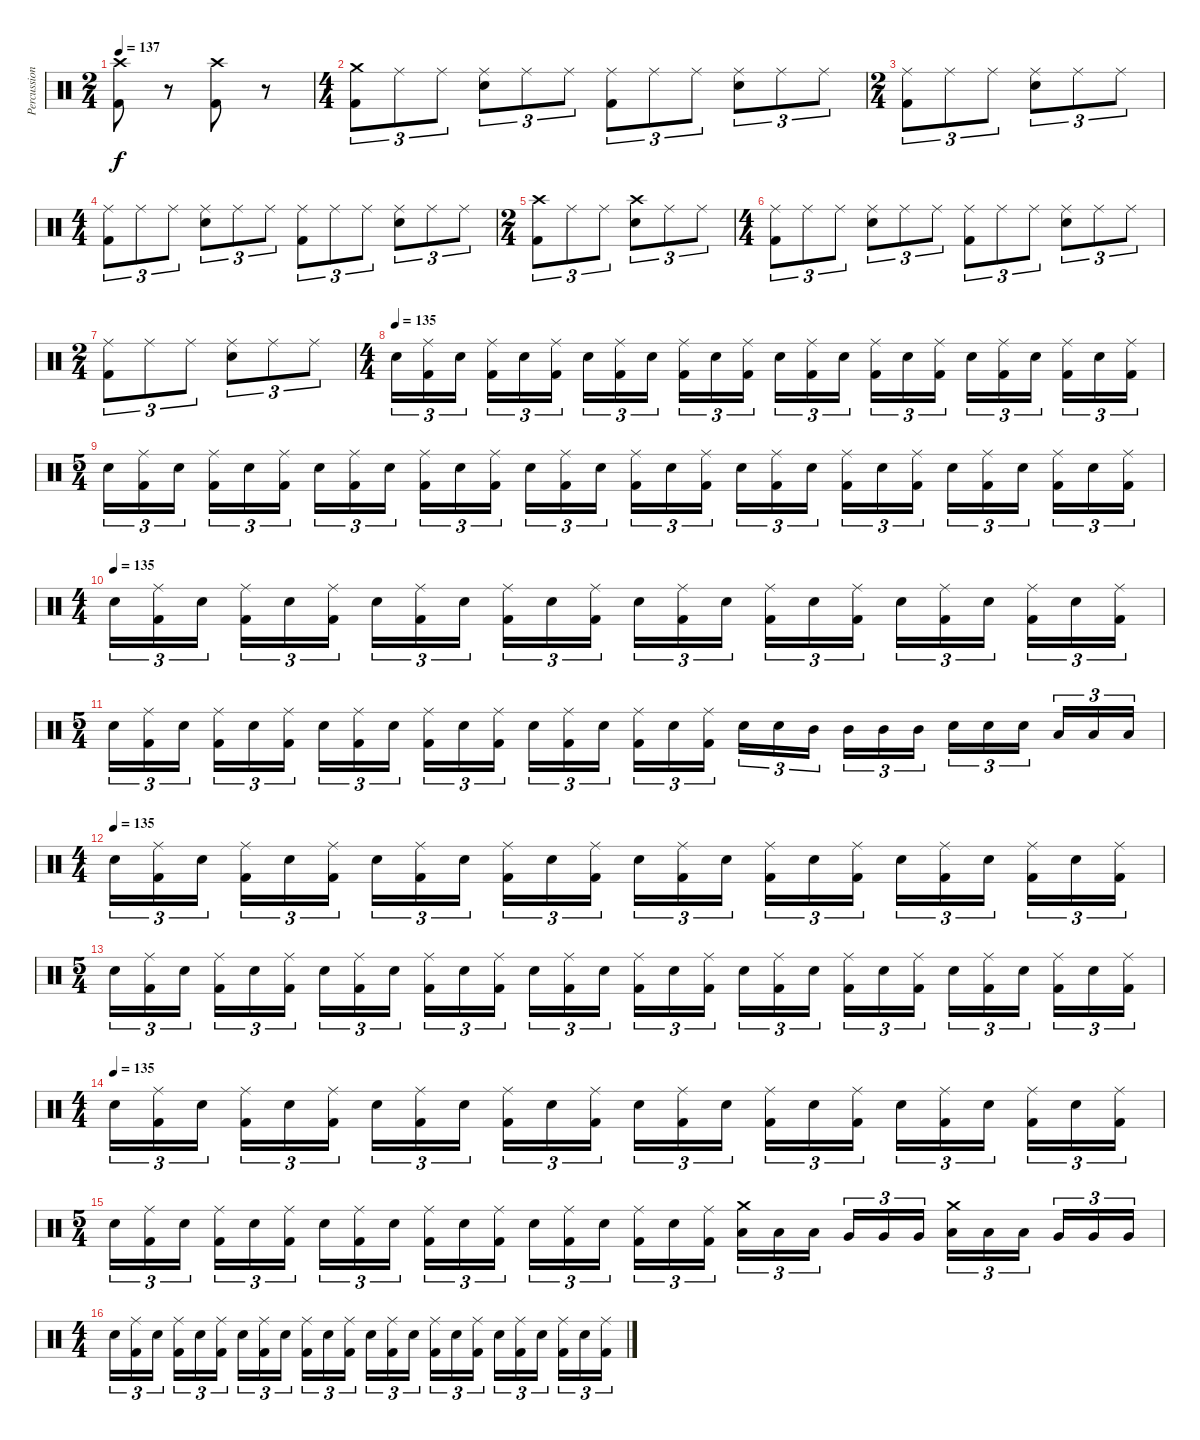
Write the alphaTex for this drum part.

\track ("Percussion" "Percussion") {instrument percussion}
\staff {score}
\articulation defaults
\ts (2 4)
\tempo 137
\clef neutral
\ks c
("Crash high (hit)" "Kick (hit) 2").8{dy f} r.8 ("Crash high (hit)" "Kick (hit) 2").8 r.8 |
\ts (4 4)
("Crash medium (hit)" "Kick (hit) 2").8{tu (3 2)} "Ride (middle)".8{tu (3 2)} "Ride (middle)".8{tu (3 2)} ("Ride (middle)" "Electric Snare (hit)").8{tu (3 2)} "Ride (middle)".8{tu (3 2)} "Ride (middle)".8{tu (3 2)} ("Ride (middle)" "Kick (hit) 2").8{tu (3 2)} "Ride (middle)".8{tu (3 2)} "Ride (middle)".8{tu (3 2)} ("Ride (middle)" "Electric Snare (hit)").8{tu (3 2)} "Ride (middle)".8{tu (3 2)} "Ride (middle)".8{tu (3 2)} |
\ts (2 4)
("Ride (middle)" "Kick (hit) 2").8{tu (3 2)} "Ride (middle)".8{tu (3 2)} "Ride (middle)".8{tu (3 2)} ("Ride (middle)" "Electric Snare (hit)").8{tu (3 2)} "Ride (middle)".8{tu (3 2)} "Ride (middle)".8{tu (3 2)} |
\ts (4 4)
("Ride (middle)" "Kick (hit) 2").8{tu (3 2)} "Ride (middle)".8{tu (3 2)} "Ride (middle)".8{tu (3 2)} ("Ride (middle)" "Electric Snare (hit)").8{tu (3 2)} "Ride (middle)".8{tu (3 2)} "Ride (middle)".8{tu (3 2)} ("Ride (middle)" "Kick (hit) 2").8{tu (3 2)} "Ride (middle)".8{tu (3 2)} "Ride (middle)".8{tu (3 2)} ("Ride (middle)" "Electric Snare (hit)").8{tu (3 2)} "Ride (middle)".8{tu (3 2)} "Ride (middle)".8{tu (3 2)} |
\ts (2 4)
("Crash high (hit)" "Kick (hit) 2").8{tu (3 2)} "Ride (middle)".8{tu (3 2)} "Ride (middle)".8{tu (3 2)} ("Crash high (hit)" "Electric Snare (hit)").8{tu (3 2)} "Ride (middle)".8{tu (3 2)} "Ride (middle)".8{tu (3 2)} |
\ts (4 4)
("Ride (middle)" "Kick (hit) 2").8{tu (3 2)} "Ride (middle)".8{tu (3 2)} "Ride (middle)".8{tu (3 2)} ("Ride (middle)" "Electric Snare (hit)").8{tu (3 2)} "Ride (middle)".8{tu (3 2)} "Ride (middle)".8{tu (3 2)} ("Ride (middle)" "Kick (hit) 2").8{tu (3 2)} "Ride (middle)".8{tu (3 2)} "Ride (middle)".8{tu (3 2)} ("Ride (middle)" "Electric Snare (hit)").8{tu (3 2)} "Ride (middle)".8{tu (3 2)} "Ride (middle)".8{tu (3 2)} |
\ts (2 4)
("Ride (middle)" "Kick (hit) 2").8{tu (3 2)} "Ride (middle)".8{tu (3 2)} "Ride (middle)".8{tu (3 2)} ("Ride (middle)" "Electric Snare (hit)").8{tu (3 2)} "Ride (middle)".8{tu (3 2)} "Ride (middle)".8{tu (3 2)} |
\ts (4 4)
\tempo (135)
"Electric Snare (hit)".16{tu (3 2)} ("Ride (middle)" "Kick (hit) 2").16{tu (3 2)} "Electric Snare (hit)".16{tu (3 2)} ("Ride (middle)" "Kick (hit) 2").16{tu (3 2)} "Electric Snare (hit)".16{tu (3 2)} ("Ride (middle)" "Kick (hit) 2").16{tu (3 2)} "Electric Snare (hit)".16{tu (3 2)} ("Ride (middle)" "Kick (hit) 2").16{tu (3 2)} "Electric Snare (hit)".16{tu (3 2)} ("Ride (middle)" "Kick (hit) 2").16{tu (3 2)} "Electric Snare (hit)".16{tu (3 2)} ("Ride (middle)" "Kick (hit) 2").16{tu (3 2)} "Electric Snare (hit)".16{tu (3 2)} ("Ride (middle)" "Kick (hit) 2").16{tu (3 2)} "Electric Snare (hit)".16{tu (3 2)} ("Ride (middle)" "Kick (hit) 2").16{tu (3 2)} "Electric Snare (hit)".16{tu (3 2)} ("Ride (middle)" "Kick (hit) 2").16{tu (3 2)} "Electric Snare (hit)".16{tu (3 2)} ("Ride (middle)" "Kick (hit) 2").16{tu (3 2)} "Electric Snare (hit)".16{tu (3 2)} ("Ride (middle)" "Kick (hit) 2").16{tu (3 2)} "Electric Snare (hit)".16{tu (3 2)} ("Ride (middle)" "Kick (hit) 2").16{tu (3 2)} |
\ts (5 4)
"Electric Snare (hit)".16{tu (3 2)} ("Ride (middle)" "Kick (hit) 2").16{tu (3 2)} "Electric Snare (hit)".16{tu (3 2)} ("Ride (middle)" "Kick (hit) 2").16{tu (3 2)} "Electric Snare (hit)".16{tu (3 2)} ("Ride (middle)" "Kick (hit) 2").16{tu (3 2)} "Electric Snare (hit)".16{tu (3 2)} ("Ride (middle)" "Kick (hit) 2").16{tu (3 2)} "Electric Snare (hit)".16{tu (3 2)} ("Ride (middle)" "Kick (hit) 2").16{tu (3 2)} "Electric Snare (hit)".16{tu (3 2)} ("Ride (middle)" "Kick (hit) 2").16{tu (3 2)} "Electric Snare (hit)".16{tu (3 2)} ("Ride (middle)" "Kick (hit) 2").16{tu (3 2)} "Electric Snare (hit)".16{tu (3 2)} ("Ride (middle)" "Kick (hit) 2").16{tu (3 2)} "Electric Snare (hit)".16{tu (3 2)} ("Ride (middle)" "Kick (hit) 2").16{tu (3 2)} "Electric Snare (hit)".16{tu (3 2)} ("Ride (middle)" "Kick (hit) 2").16{tu (3 2)} "Electric Snare (hit)".16{tu (3 2)} ("Ride (middle)" "Kick (hit) 2").16{tu (3 2)} "Electric Snare (hit)".16{tu (3 2)} ("Ride (middle)" "Kick (hit) 2").16{tu (3 2)} "Electric Snare (hit)".16{tu (3 2)} ("Ride (middle)" "Kick (hit) 2").16{tu (3 2)} "Electric Snare (hit)".16{tu (3 2)} ("Ride (middle)" "Kick (hit) 2").16{tu (3 2)} "Electric Snare (hit)".16{tu (3 2)} ("Ride (middle)" "Kick (hit) 2").16{tu (3 2)} |
\ts (4 4)
\tempo (135)
"Electric Snare (hit)".16{tu (3 2)} ("Ride (middle)" "Kick (hit) 2").16{tu (3 2)} "Electric Snare (hit)".16{tu (3 2)} ("Ride (middle)" "Kick (hit) 2").16{tu (3 2)} "Electric Snare (hit)".16{tu (3 2)} ("Ride (middle)" "Kick (hit) 2").16{tu (3 2)} "Electric Snare (hit)".16{tu (3 2)} ("Ride (middle)" "Kick (hit) 2").16{tu (3 2)} "Electric Snare (hit)".16{tu (3 2)} ("Ride (middle)" "Kick (hit) 2").16{tu (3 2)} "Electric Snare (hit)".16{tu (3 2)} ("Ride (middle)" "Kick (hit) 2").16{tu (3 2)} "Electric Snare (hit)".16{tu (3 2)} ("Ride (middle)" "Kick (hit) 2").16{tu (3 2)} "Electric Snare (hit)".16{tu (3 2)} ("Ride (middle)" "Kick (hit) 2").16{tu (3 2)} "Electric Snare (hit)".16{tu (3 2)} ("Ride (middle)" "Kick (hit) 2").16{tu (3 2)} "Electric Snare (hit)".16{tu (3 2)} ("Ride (middle)" "Kick (hit) 2").16{tu (3 2)} "Electric Snare (hit)".16{tu (3 2)} ("Ride (middle)" "Kick (hit) 2").16{tu (3 2)} "Electric Snare (hit)".16{tu (3 2)} ("Ride (middle)" "Kick (hit) 2").16{tu (3 2)} |
\ts (5 4)
"Electric Snare (hit)".16{tu (3 2)} ("Ride (middle)" "Kick (hit) 2").16{tu (3 2)} "Electric Snare (hit)".16{tu (3 2)} ("Ride (middle)" "Kick (hit) 2").16{tu (3 2)} "Electric Snare (hit)".16{tu (3 2)} ("Ride (middle)" "Kick (hit) 2").16{tu (3 2)} "Electric Snare (hit)".16{tu (3 2)} ("Ride (middle)" "Kick (hit) 2").16{tu (3 2)} "Electric Snare (hit)".16{tu (3 2)} ("Ride (middle)" "Kick (hit) 2").16{tu (3 2)} "Electric Snare (hit)".16{tu (3 2)} ("Ride (middle)" "Kick (hit) 2").16{tu (3 2)} "Electric Snare (hit)".16{tu (3 2)} ("Ride (middle)" "Kick (hit) 2").16{tu (3 2)} "Electric Snare (hit)".16{tu (3 2)} ("Ride (middle)" "Kick (hit) 2").16{tu (3 2)} "Electric Snare (hit)".16{tu (3 2)} ("Ride (middle)" "Kick (hit) 2").16{tu (3 2)} "Electric Snare (hit)".16{tu (3 2)} "Electric Snare (hit)".16{tu (3 2)} "Mid Tom (hit)".16{tu (3 2)} "Mid Tom (hit)".16{tu (3 2)} "Mid Tom (hit)".16{tu (3 2)} "Mid Tom (hit)".16{tu (3 2)} "Electric Snare (hit)".16{tu (3 2)} "Electric Snare (hit)".16{tu (3 2)} "Electric Snare (hit)".16{tu (3 2)} "Low Tom (hit)".16{tu (3 2)} "Low Tom (hit)".16{tu (3 2)} "Low Tom (hit)".16{tu (3 2)} |
\ts (4 4)
\tempo (135)
"Electric Snare (hit)".16{tu (3 2)} ("Ride (middle)" "Kick (hit) 2").16{tu (3 2)} "Electric Snare (hit)".16{tu (3 2)} ("Ride (middle)" "Kick (hit) 2").16{tu (3 2)} "Electric Snare (hit)".16{tu (3 2)} ("Ride (middle)" "Kick (hit) 2").16{tu (3 2)} "Electric Snare (hit)".16{tu (3 2)} ("Ride (middle)" "Kick (hit) 2").16{tu (3 2)} "Electric Snare (hit)".16{tu (3 2)} ("Ride (middle)" "Kick (hit) 2").16{tu (3 2)} "Electric Snare (hit)".16{tu (3 2)} ("Ride (middle)" "Kick (hit) 2").16{tu (3 2)} "Electric Snare (hit)".16{tu (3 2)} ("Ride (middle)" "Kick (hit) 2").16{tu (3 2)} "Electric Snare (hit)".16{tu (3 2)} ("Ride (middle)" "Kick (hit) 2").16{tu (3 2)} "Electric Snare (hit)".16{tu (3 2)} ("Ride (middle)" "Kick (hit) 2").16{tu (3 2)} "Electric Snare (hit)".16{tu (3 2)} ("Ride (middle)" "Kick (hit) 2").16{tu (3 2)} "Electric Snare (hit)".16{tu (3 2)} ("Ride (middle)" "Kick (hit) 2").16{tu (3 2)} "Electric Snare (hit)".16{tu (3 2)} ("Ride (middle)" "Kick (hit) 2").16{tu (3 2)} |
\ts (5 4)
"Electric Snare (hit)".16{tu (3 2)} ("Ride (middle)" "Kick (hit) 2").16{tu (3 2)} "Electric Snare (hit)".16{tu (3 2)} ("Ride (middle)" "Kick (hit) 2").16{tu (3 2)} "Electric Snare (hit)".16{tu (3 2)} ("Ride (middle)" "Kick (hit) 2").16{tu (3 2)} "Electric Snare (hit)".16{tu (3 2)} ("Ride (middle)" "Kick (hit) 2").16{tu (3 2)} "Electric Snare (hit)".16{tu (3 2)} ("Ride (middle)" "Kick (hit) 2").16{tu (3 2)} "Electric Snare (hit)".16{tu (3 2)} ("Ride (middle)" "Kick (hit) 2").16{tu (3 2)} "Electric Snare (hit)".16{tu (3 2)} ("Ride (middle)" "Kick (hit) 2").16{tu (3 2)} "Electric Snare (hit)".16{tu (3 2)} ("Ride (middle)" "Kick (hit) 2").16{tu (3 2)} "Electric Snare (hit)".16{tu (3 2)} ("Ride (middle)" "Kick (hit) 2").16{tu (3 2)} "Electric Snare (hit)".16{tu (3 2)} ("Ride (middle)" "Kick (hit) 2").16{tu (3 2)} "Electric Snare (hit)".16{tu (3 2)} ("Ride (middle)" "Kick (hit) 2").16{tu (3 2)} "Electric Snare (hit)".16{tu (3 2)} ("Ride (middle)" "Kick (hit) 2").16{tu (3 2)} "Electric Snare (hit)".16{tu (3 2)} ("Ride (middle)" "Kick (hit) 2").16{tu (3 2)} "Electric Snare (hit)".16{tu (3 2)} ("Ride (middle)" "Kick (hit) 2").16{tu (3 2)} "Electric Snare (hit)".16{tu (3 2)} ("Ride (middle)" "Kick (hit) 2").16{tu (3 2)} |
\ts (4 4)
\tempo (135)
"Electric Snare (hit)".16{tu (3 2)} ("Ride (middle)" "Kick (hit) 2").16{tu (3 2)} "Electric Snare (hit)".16{tu (3 2)} ("Ride (middle)" "Kick (hit) 2").16{tu (3 2)} "Electric Snare (hit)".16{tu (3 2)} ("Ride (middle)" "Kick (hit) 2").16{tu (3 2)} "Electric Snare (hit)".16{tu (3 2)} ("Ride (middle)" "Kick (hit) 2").16{tu (3 2)} "Electric Snare (hit)".16{tu (3 2)} ("Ride (middle)" "Kick (hit) 2").16{tu (3 2)} "Electric Snare (hit)".16{tu (3 2)} ("Ride (middle)" "Kick (hit) 2").16{tu (3 2)} "Electric Snare (hit)".16{tu (3 2)} ("Ride (middle)" "Kick (hit) 2").16{tu (3 2)} "Electric Snare (hit)".16{tu (3 2)} ("Ride (middle)" "Kick (hit) 2").16{tu (3 2)} "Electric Snare (hit)".16{tu (3 2)} ("Ride (middle)" "Kick (hit) 2").16{tu (3 2)} "Electric Snare (hit)".16{tu (3 2)} ("Ride (middle)" "Kick (hit) 2").16{tu (3 2)} "Electric Snare (hit)".16{tu (3 2)} ("Ride (middle)" "Kick (hit) 2").16{tu (3 2)} "Electric Snare (hit)".16{tu (3 2)} ("Ride (middle)" "Kick (hit) 2").16{tu (3 2)} |
\ts (5 4)
"Electric Snare (hit)".16{tu (3 2)} ("Ride (middle)" "Kick (hit) 2").16{tu (3 2)} "Electric Snare (hit)".16{tu (3 2)} ("Ride (middle)" "Kick (hit) 2").16{tu (3 2)} "Electric Snare (hit)".16{tu (3 2)} ("Ride (middle)" "Kick (hit) 2").16{tu (3 2)} "Electric Snare (hit)".16{tu (3 2)} ("Ride (middle)" "Kick (hit) 2").16{tu (3 2)} "Electric Snare (hit)".16{tu (3 2)} ("Ride (middle)" "Kick (hit) 2").16{tu (3 2)} "Electric Snare (hit)".16{tu (3 2)} ("Ride (middle)" "Kick (hit) 2").16{tu (3 2)} "Electric Snare (hit)".16{tu (3 2)} ("Ride (middle)" "Kick (hit) 2").16{tu (3 2)} "Electric Snare (hit)".16{tu (3 2)} ("Ride (middle)" "Kick (hit) 2").16{tu (3 2)} "Electric Snare (hit)".16{tu (3 2)} ("Ride (middle)" "Kick (hit) 2").16{tu (3 2)} ("Crash medium (hit)" "Low Tom (hit)").16{tu (3 2)} "Low Tom (hit)".16{tu (3 2)} "Low Tom (hit)".16{tu (3 2)} "Very Low Tom (hit)".16{tu (3 2)} "Very Low Tom (hit)".16{tu (3 2)} "Very Low Tom (hit)".16{tu (3 2)} ("Crash medium (hit)" "Low Tom (hit)").16{tu (3 2)} "Low Tom (hit)".16{tu (3 2)} "Low Tom (hit)".16{tu (3 2)} "Very Low Tom (hit)".16{tu (3 2)} "Very Low Tom (hit)".16{tu (3 2)} "Very Low Tom (hit)".16{tu (3 2)} |
\ts (4 4)
"Electric Snare (hit)".16{tu (3 2)} ("Ride (middle)" "Kick (hit) 2").16{tu (3 2)} "Electric Snare (hit)".16{tu (3 2)} ("Ride (middle)" "Kick (hit) 2").16{tu (3 2)} "Electric Snare (hit)".16{tu (3 2)} ("Ride (middle)" "Kick (hit) 2").16{tu (3 2)} "Electric Snare (hit)".16{tu (3 2)} ("Ride (middle)" "Kick (hit) 2").16{tu (3 2)} "Electric Snare (hit)".16{tu (3 2)} ("Ride (middle)" "Kick (hit) 2").16{tu (3 2)} "Electric Snare (hit)".16{tu (3 2)} ("Ride (middle)" "Kick (hit) 2").16{tu (3 2)} "Electric Snare (hit)".16{tu (3 2)} ("Ride (middle)" "Kick (hit) 2").16{tu (3 2)} "Electric Snare (hit)".16{tu (3 2)} ("Ride (middle)" "Kick (hit) 2").16{tu (3 2)} "Electric Snare (hit)".16{tu (3 2)} ("Ride (middle)" "Kick (hit) 2").16{tu (3 2)} "Electric Snare (hit)".16{tu (3 2)} ("Ride (middle)" "Kick (hit) 2").16{tu (3 2)} "Electric Snare (hit)".16{tu (3 2)} ("Ride (middle)" "Kick (hit) 2").16{tu (3 2)} "Electric Snare (hit)".16{tu (3 2)} ("Ride (middle)" "Kick (hit) 2").16{tu (3 2)}
